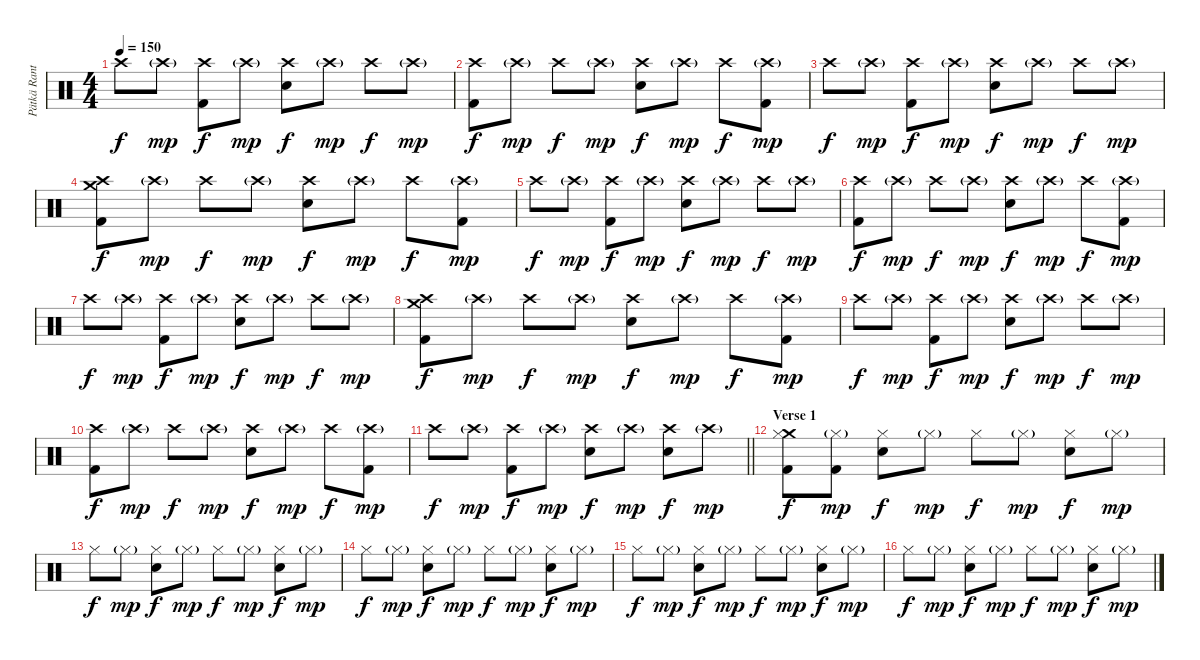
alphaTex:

\track ("Pätkä Rantala (Drums)" "Pätkä Rant") {instrument percussion}
\staff {score}
\articulation defaults
\ts (4 4)
\tempo 150
\clef neutral
\ks c "Crash high (hit)".8{dy f} "Crash high (hit)"{g}.8{dy mp}
("Crash high (hit)" "Kick (hit) 2").8{dy f} "Crash high (hit)"{g}.8{dy mp} ("Crash high (hit)" "Snare (hit) 2").8{dy f} "Crash high (hit)"{g}.8{dy mp} "Crash high (hit)".8{dy f} "Crash high (hit)"{g}.8{dy mp} |
("Crash high (hit)" "Kick (hit) 2").8{dy f} "Crash high (hit)"{g}.8{dy mp} "Crash high (hit)".8{dy f} "Crash high (hit)"{g}.8{dy mp} ("Crash high (hit)" "Snare (hit) 2").8{dy f} "Crash high (hit)"{g}.8{dy mp} "Crash high (hit)".8{dy f} ("Crash high (hit)"{g} "Kick (hit) 2").8{dy mp} |
"Crash high (hit)".8{dy f} "Crash high (hit)"{g}.8{dy mp} ("Crash high (hit)" "Kick (hit) 2").8{dy f} "Crash high (hit)"{g}.8{dy mp} ("Crash high (hit)" "Snare (hit) 2").8{dy f} "Crash high (hit)"{g}.8{dy mp} "Crash high (hit)".8{dy f} "Crash high (hit)"{g}.8{dy mp} |
("Crash medium (hit)" "Crash high (hit)" "Kick (hit) 2").8{dy f} "Crash high (hit)"{g}.8{dy mp} "Crash high (hit)".8{dy f} "Crash high (hit)"{g}.8{dy mp} ("Crash high (hit)" "Snare (hit) 2").8{dy f} "Crash high (hit)"{g}.8{dy mp} "Crash high (hit)".8{dy f} ("Crash high (hit)"{g} "Kick (hit) 2").8{dy mp} |
"Crash high (hit)".8{dy f} "Crash high (hit)"{g}.8{dy mp} ("Crash high (hit)" "Kick (hit) 2").8{dy f} "Crash high (hit)"{g}.8{dy mp} ("Crash high (hit)" "Snare (hit) 2").8{dy f} "Crash high (hit)"{g}.8{dy mp} "Crash high (hit)".8{dy f} "Crash high (hit)"{g}.8{dy mp} |
("Crash high (hit)" "Kick (hit) 2").8{dy f} "Crash high (hit)"{g}.8{dy mp} "Crash high (hit)".8{dy f} "Crash high (hit)"{g}.8{dy mp} ("Crash high (hit)" "Snare (hit) 2").8{dy f} "Crash high (hit)"{g}.8{dy mp} "Crash high (hit)".8{dy f} ("Crash high (hit)"{g} "Kick (hit) 2").8{dy mp} |
"Crash high (hit)".8{dy f} "Crash high (hit)"{g}.8{dy mp} ("Crash high (hit)" "Kick (hit) 2").8{dy f} "Crash high (hit)"{g}.8{dy mp} ("Crash high (hit)" "Snare (hit) 2").8{dy f} "Crash high (hit)"{g}.8{dy mp} "Crash high (hit)".8{dy f} "Crash high (hit)"{g}.8{dy mp} |
("Crash medium (hit)" "Crash high (hit)" "Kick (hit) 2").8{dy f} "Crash high (hit)"{g}.8{dy mp} "Crash high (hit)".8{dy f} "Crash high (hit)"{g}.8{dy mp} ("Crash high (hit)" "Snare (hit) 2").8{dy f} "Crash high (hit)"{g}.8{dy mp} "Crash high (hit)".8{dy f} ("Crash high (hit)"{g} "Kick (hit) 2").8{dy mp} |
"Crash high (hit)".8{dy f} "Crash high (hit)"{g}.8{dy mp} ("Crash high (hit)" "Kick (hit) 2").8{dy f} "Crash high (hit)"{g}.8{dy mp} ("Crash high (hit)" "Snare (hit) 2").8{dy f} "Crash high (hit)"{g}.8{dy mp} "Crash high (hit)".8{dy f} "Crash high (hit)"{g}.8{dy mp} |
("Crash high (hit)" "Kick (hit) 2").8{dy f} "Crash high (hit)"{g}.8{dy mp} "Crash high (hit)".8{dy f} "Crash high (hit)"{g}.8{dy mp} ("Crash high (hit)" "Snare (hit) 2").8{dy f} "Crash high (hit)"{g}.8{dy mp} "Crash high (hit)".8{dy f} ("Crash high (hit)"{g} "Kick (hit) 2").8{dy mp} |
\barLineRight lightlight "Crash high (hit)".8{dy f} "Crash high (hit)"{g}.8{dy mp}
("Crash high (hit)" "Kick (hit) 2").8{dy f} "Crash high (hit)"{g}.8{dy mp} ("Crash high (hit)" "Snare (hit) 2").8{dy f} "Crash high (hit)"{g}.8{dy mp} ("Crash high (hit)" "Snare (hit) 2").8{dy f} "Crash high (hit)"{g}.8{dy mp} |
\section ("" "Verse 1")
("Crash medium (hit)" "Hi-Hat (closed)" "Kick (hit) 2").8{dy f} ("Hi-Hat (closed)"{g} "Kick (hit) 2").8{dy mp} ("Hi-Hat (closed)" "Snare (hit) 2").8{dy f} "Hi-Hat (closed)"{g}.8{dy mp} "Hi-Hat (closed)".8{dy f} "Hi-Hat (closed)"{g}.8{dy mp} ("Hi-Hat (closed)" "Snare (hit) 2").8{dy f} "Hi-Hat (closed)"{g}.8{dy mp} |
"Hi-Hat (closed)".8{dy f} "Hi-Hat (closed)"{g}.8{dy mp} ("Hi-Hat (closed)" "Snare (hit) 2").8{dy f} "Hi-Hat (closed)"{g}.8{dy mp} "Hi-Hat (closed)".8{dy f} "Hi-Hat (closed)"{g}.8{dy mp} ("Hi-Hat (closed)" "Snare (hit) 2").8{dy f} "Hi-Hat (closed)"{g}.8{dy mp} |
"Hi-Hat (closed)".8{dy f} "Hi-Hat (closed)"{g}.8{dy mp} ("Hi-Hat (closed)" "Snare (hit) 2").8{dy f} "Hi-Hat (closed)"{g}.8{dy mp} "Hi-Hat (closed)".8{dy f} "Hi-Hat (closed)"{g}.8{dy mp} ("Hi-Hat (closed)" "Snare (hit) 2").8{dy f} "Hi-Hat (closed)"{g}.8{dy mp} |
"Hi-Hat (closed)".8{dy f} "Hi-Hat (closed)"{g}.8{dy mp} ("Hi-Hat (closed)" "Snare (hit) 2").8{dy f} "Hi-Hat (closed)"{g}.8{dy mp} "Hi-Hat (closed)".8{dy f} "Hi-Hat (closed)"{g}.8{dy mp} ("Hi-Hat (closed)" "Snare (hit) 2").8{dy f} "Hi-Hat (closed)"{g}.8{dy mp} |
"Hi-Hat (closed)".8{dy f} "Hi-Hat (closed)"{g}.8{dy mp} ("Hi-Hat (closed)" "Snare (hit) 2").8{dy f} "Hi-Hat (closed)"{g}.8{dy mp} "Hi-Hat (closed)".8{dy f} "Hi-Hat (closed)"{g}.8{dy mp} ("Hi-Hat (closed)" "Snare (hit) 2").8{dy f} "Hi-Hat (closed)"{g}.8{dy mp}
